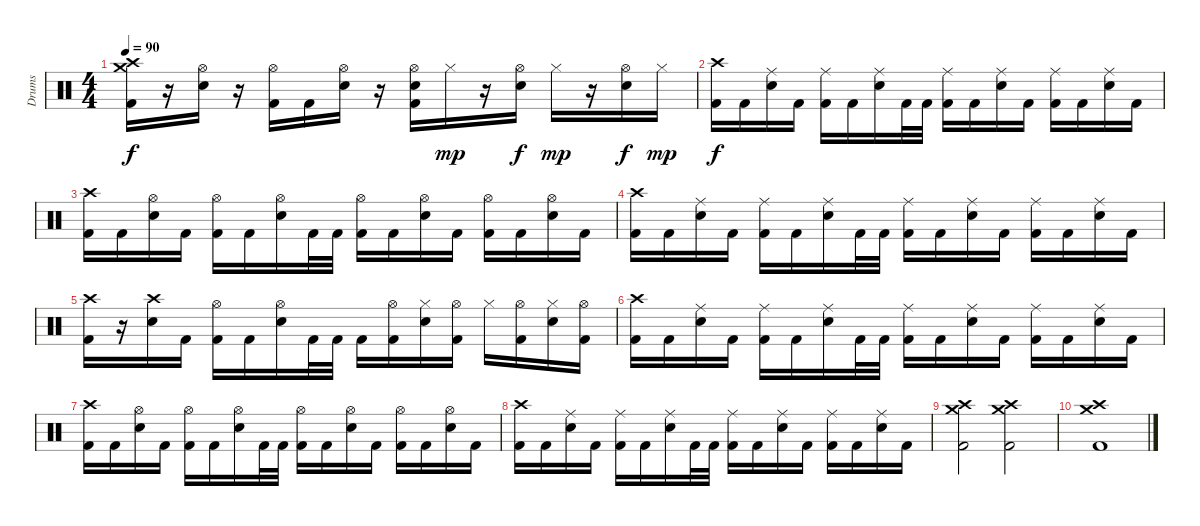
\track ("Drums" "Drums") {instrument percussion}
\staff {score}
\articulation defaults
\ts (4 4)
\tempo 90
\clef neutral
\ks c
("Crash medium (hit)" "Crash high (hit)" "Kick (hit) 2").16{dy f} r.16 ("Hi-Hat (open)" "Snare (hit) 2").16 r.16 ("Hi-Hat (open)" "Kick (hit) 2").16 "Kick (hit) 2".16 ("Hi-Hat (open)" "Snare (hit) 2").16 r.16 ("Hi-Hat (open)" "Snare (hit) 2" "Kick (hit) 2").16 "Hi-Hat (closed)".16{dy mp} r.16 ("Hi-Hat (open)" "Snare (hit) 2").16{dy f} "Hi-Hat (closed)".16{dy mp} r.16 ("Hi-Hat (open)" "Snare (hit) 2").16{dy f} "Hi-Hat (closed)".16{dy mp} |
("Crash high (hit)" "Kick (hit) 2").16{dy f} "Kick (hit) 2".16 ("Ride (middle)" "Snare (hit) 2").16 "Kick (hit) 2".16 ("Ride (middle)" "Kick (hit) 2").16 "Kick (hit) 2".16 ("Ride (middle)" "Snare (hit) 2").16 "Kick (hit) 2".32 "Kick (hit) 2".32 ("Ride (middle)" "Kick (hit) 2").16 "Kick (hit) 2".16 ("Ride (middle)" "Snare (hit) 2").16 "Kick (hit) 2".16 ("Ride (middle)" "Kick (hit) 2").16 "Kick (hit) 2".16 ("Ride (middle)" "Snare (hit) 2").16 "Kick (hit) 2".16 |
("Crash high (hit)" "Kick (hit) 2").16 "Kick (hit) 2".16 ("Hi-Hat (open)" "Snare (hit) 2").16 "Kick (hit) 2".16 ("Hi-Hat (open)" "Kick (hit) 2").16 "Kick (hit) 2".16 ("Hi-Hat (open)" "Snare (hit) 2").16 "Kick (hit) 2".32 "Kick (hit) 2".32 ("Hi-Hat (open)" "Kick (hit) 2").16 "Kick (hit) 2".16 ("Hi-Hat (open)" "Snare (hit) 2").16 "Kick (hit) 2".16 ("Hi-Hat (open)" "Kick (hit) 2").16 "Kick (hit) 2".16 ("Hi-Hat (open)" "Snare (hit) 2").16 "Kick (hit) 2".16 |
("Crash high (hit)" "Kick (hit) 2").16 "Kick (hit) 2".16 ("Ride (middle)" "Snare (hit) 2").16 "Kick (hit) 2".16 ("Ride (middle)" "Kick (hit) 2").16 "Kick (hit) 2".16 ("Ride (middle)" "Snare (hit) 2").16 "Kick (hit) 2".32 "Kick (hit) 2".32 ("Ride (middle)" "Kick (hit) 2").16 "Kick (hit) 2".16 ("Ride (middle)" "Snare (hit) 2").16 "Kick (hit) 2".16 ("Ride (middle)" "Kick (hit) 2").16 "Kick (hit) 2".16 ("Ride (middle)" "Snare (hit) 2").16 "Kick (hit) 2".16 |
("Crash high (hit)" "Kick (hit) 2").16 r.16 ("Crash high (hit)" "Snare (hit) 2").16 "Kick (hit) 2".16 ("Hi-Hat (open)" "Kick (hit) 2").16 "Kick (hit) 2".16 ("Hi-Hat (open)" "Snare (hit) 2").16 "Kick (hit) 2".32 "Kick (hit) 2".32 "Kick (hit) 2".16 ("Hi-Hat (open)" "Kick (hit) 2").16 ("Hi-Hat (closed)" "Snare (hit) 2").16 ("Hi-Hat (open)" "Kick (hit) 2").16 "Hi-Hat (closed)".16 ("Hi-Hat (open)" "Kick (hit) 2").16 ("Hi-Hat (closed)" "Snare (hit) 2").16 ("Hi-Hat (open)" "Kick (hit) 2").16 |
("Crash high (hit)" "Kick (hit) 2").16 "Kick (hit) 2".16 ("Ride (middle)" "Snare (hit) 2").16 "Kick (hit) 2".16 ("Ride (middle)" "Kick (hit) 2").16 "Kick (hit) 2".16 ("Ride (middle)" "Snare (hit) 2").16 "Kick (hit) 2".32 "Kick (hit) 2".32 ("Ride (middle)" "Kick (hit) 2").16 "Kick (hit) 2".16 ("Ride (middle)" "Snare (hit) 2").16 "Kick (hit) 2".16 ("Ride (middle)" "Kick (hit) 2").16 "Kick (hit) 2".16 ("Ride (middle)" "Snare (hit) 2").16 "Kick (hit) 2".16 |
("Crash high (hit)" "Kick (hit) 2").16 "Kick (hit) 2".16 ("Hi-Hat (open)" "Snare (hit) 2").16 "Kick (hit) 2".16 ("Hi-Hat (open)" "Kick (hit) 2").16 "Kick (hit) 2".16 ("Hi-Hat (open)" "Snare (hit) 2").16 "Kick (hit) 2".32 "Kick (hit) 2".32 ("Hi-Hat (open)" "Kick (hit) 2").16 "Kick (hit) 2".16 ("Hi-Hat (open)" "Snare (hit) 2").16 "Kick (hit) 2".16 ("Hi-Hat (open)" "Kick (hit) 2").16 "Kick (hit) 2".16 ("Hi-Hat (open)" "Snare (hit) 2").16 "Kick (hit) 2".16 |
("Crash high (hit)" "Kick (hit) 2").16 "Kick (hit) 2".16 ("Ride (middle)" "Snare (hit) 2").16 "Kick (hit) 2".16 ("Ride (middle)" "Kick (hit) 2").16 "Kick (hit) 2".16 ("Ride (middle)" "Snare (hit) 2").16 "Kick (hit) 2".32 "Kick (hit) 2".32 ("Ride (middle)" "Kick (hit) 2").16 "Kick (hit) 2".16 ("Ride (middle)" "Snare (hit) 2").16 "Kick (hit) 2".16 ("Ride (middle)" "Kick (hit) 2").16 "Kick (hit) 2".16 ("Ride (middle)" "Snare (hit) 2").16 "Kick (hit) 2".16 |
("Crash medium (hit)" "Crash high (hit)" "Kick (hit) 2").2 ("Crash high (hit)" "Crash medium (hit)" "Kick (hit) 2").2 |
("Crash medium (hit)" "Crash high (hit)" "Kick (hit) 2").1
